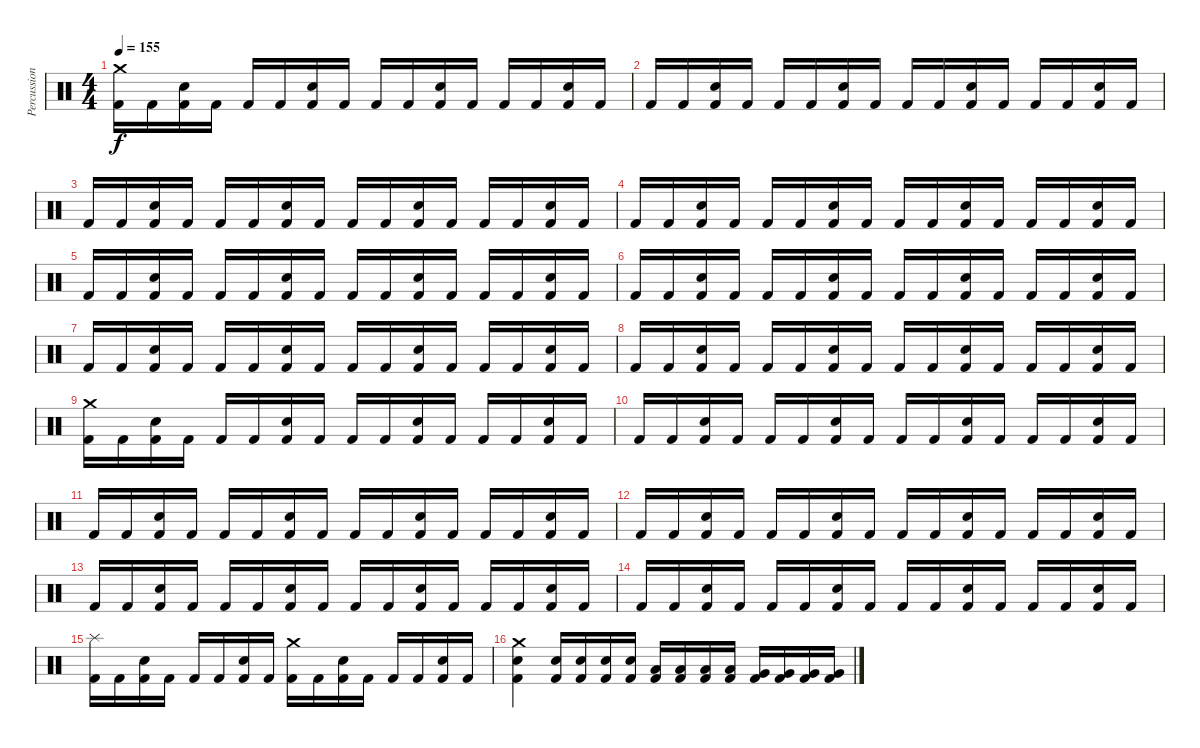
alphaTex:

\track ("Percussions" "Percussion") {instrument percussion}
\staff {score}
\articulation defaults
\ts (4 4)
\tempo 155
\clef neutral
\ks c
("Crash medium (hit)" "Kick (hit) 2").16{dy f} "Kick (hit) 2".16 ("Snare (hit) 2" "Kick (hit) 2").16 "Kick (hit) 2".16 "Kick (hit) 2".16 "Kick (hit) 2".16 ("Snare (hit) 2" "Kick (hit) 2").16 "Kick (hit) 2".16 "Kick (hit) 2".16 "Kick (hit) 2".16 ("Snare (hit) 2" "Kick (hit) 2").16 "Kick (hit) 2".16 "Kick (hit) 2".16 "Kick (hit) 2".16 ("Snare (hit) 2" "Kick (hit) 2").16 "Kick (hit) 2".16 |
"Kick (hit) 2".16 "Kick (hit) 2".16 ("Snare (hit) 2" "Kick (hit) 2").16 "Kick (hit) 2".16 "Kick (hit) 2".16 "Kick (hit) 2".16 ("Snare (hit) 2" "Kick (hit) 2").16 "Kick (hit) 2".16 "Kick (hit) 2".16 "Kick (hit) 2".16 ("Snare (hit) 2" "Kick (hit) 2").16 "Kick (hit) 2".16 "Kick (hit) 2".16 "Kick (hit) 2".16 ("Snare (hit) 2" "Kick (hit) 2").16 "Kick (hit) 2".16 |
"Kick (hit) 2".16 "Kick (hit) 2".16 ("Snare (hit) 2" "Kick (hit) 2").16 "Kick (hit) 2".16 "Kick (hit) 2".16 "Kick (hit) 2".16 ("Snare (hit) 2" "Kick (hit) 2").16 "Kick (hit) 2".16 "Kick (hit) 2".16 "Kick (hit) 2".16 ("Snare (hit) 2" "Kick (hit) 2").16 "Kick (hit) 2".16 "Kick (hit) 2".16 "Kick (hit) 2".16 ("Snare (hit) 2" "Kick (hit) 2").16 "Kick (hit) 2".16 |
"Kick (hit) 2".16 "Kick (hit) 2".16 ("Snare (hit) 2" "Kick (hit) 2").16 "Kick (hit) 2".16 "Kick (hit) 2".16 "Kick (hit) 2".16 ("Snare (hit) 2" "Kick (hit) 2").16 "Kick (hit) 2".16 "Kick (hit) 2".16 "Kick (hit) 2".16 ("Snare (hit) 2" "Kick (hit) 2").16 "Kick (hit) 2".16 "Kick (hit) 2".16 "Kick (hit) 2".16 ("Snare (hit) 2" "Kick (hit) 2").16 "Kick (hit) 2".16 |
"Kick (hit) 2".16 "Kick (hit) 2".16 ("Snare (hit) 2" "Kick (hit) 2").16 "Kick (hit) 2".16 "Kick (hit) 2".16 "Kick (hit) 2".16 ("Snare (hit) 2" "Kick (hit) 2").16 "Kick (hit) 2".16 "Kick (hit) 2".16 "Kick (hit) 2".16 ("Snare (hit) 2" "Kick (hit) 2").16 "Kick (hit) 2".16 "Kick (hit) 2".16 "Kick (hit) 2".16 ("Snare (hit) 2" "Kick (hit) 2").16 "Kick (hit) 2".16 |
"Kick (hit) 2".16 "Kick (hit) 2".16 ("Snare (hit) 2" "Kick (hit) 2").16 "Kick (hit) 2".16 "Kick (hit) 2".16 "Kick (hit) 2".16 ("Snare (hit) 2" "Kick (hit) 2").16 "Kick (hit) 2".16 "Kick (hit) 2".16 "Kick (hit) 2".16 ("Snare (hit) 2" "Kick (hit) 2").16 "Kick (hit) 2".16 "Kick (hit) 2".16 "Kick (hit) 2".16 ("Snare (hit) 2" "Kick (hit) 2").16 "Kick (hit) 2".16 |
"Kick (hit) 2".16 "Kick (hit) 2".16 ("Snare (hit) 2" "Kick (hit) 2").16 "Kick (hit) 2".16 "Kick (hit) 2".16 "Kick (hit) 2".16 ("Snare (hit) 2" "Kick (hit) 2").16 "Kick (hit) 2".16 "Kick (hit) 2".16 "Kick (hit) 2".16 ("Snare (hit) 2" "Kick (hit) 2").16 "Kick (hit) 2".16 "Kick (hit) 2".16 "Kick (hit) 2".16 ("Snare (hit) 2" "Kick (hit) 2").16 "Kick (hit) 2".16 |
"Kick (hit) 2".16 "Kick (hit) 2".16 ("Snare (hit) 2" "Kick (hit) 2").16 "Kick (hit) 2".16 "Kick (hit) 2".16 "Kick (hit) 2".16 ("Snare (hit) 2" "Kick (hit) 2").16 "Kick (hit) 2".16 "Kick (hit) 2".16 "Kick (hit) 2".16 ("Snare (hit) 2" "Kick (hit) 2").16 "Kick (hit) 2".16 "Kick (hit) 2".16 "Kick (hit) 2".16 ("Snare (hit) 2" "Kick (hit) 2").16 "Kick (hit) 2".16 |
("Crash medium (hit)" "Kick (hit) 2").16 "Kick (hit) 2".16 ("Snare (hit) 2" "Kick (hit) 2").16 "Kick (hit) 2".16 "Kick (hit) 2".16 "Kick (hit) 2".16 ("Snare (hit) 2" "Kick (hit) 2").16 "Kick (hit) 2".16 "Kick (hit) 2".16 "Kick (hit) 2".16 ("Snare (hit) 2" "Kick (hit) 2").16 "Kick (hit) 2".16 "Kick (hit) 2".16 "Kick (hit) 2".16 ("Snare (hit) 2" "Kick (hit) 2").16 "Kick (hit) 2".16 |
"Kick (hit) 2".16 "Kick (hit) 2".16 ("Snare (hit) 2" "Kick (hit) 2").16 "Kick (hit) 2".16 "Kick (hit) 2".16 "Kick (hit) 2".16 ("Snare (hit) 2" "Kick (hit) 2").16 "Kick (hit) 2".16 "Kick (hit) 2".16 "Kick (hit) 2".16 ("Snare (hit) 2" "Kick (hit) 2").16 "Kick (hit) 2".16 "Kick (hit) 2".16 "Kick (hit) 2".16 ("Snare (hit) 2" "Kick (hit) 2").16 "Kick (hit) 2".16 |
"Kick (hit) 2".16 "Kick (hit) 2".16 ("Snare (hit) 2" "Kick (hit) 2").16 "Kick (hit) 2".16 "Kick (hit) 2".16 "Kick (hit) 2".16 ("Snare (hit) 2" "Kick (hit) 2").16 "Kick (hit) 2".16 "Kick (hit) 2".16 "Kick (hit) 2".16 ("Snare (hit) 2" "Kick (hit) 2").16 "Kick (hit) 2".16 "Kick (hit) 2".16 "Kick (hit) 2".16 ("Snare (hit) 2" "Kick (hit) 2").16 "Kick (hit) 2".16 |
"Kick (hit) 2".16 "Kick (hit) 2".16 ("Snare (hit) 2" "Kick (hit) 2").16 "Kick (hit) 2".16 "Kick (hit) 2".16 "Kick (hit) 2".16 ("Snare (hit) 2" "Kick (hit) 2").16 "Kick (hit) 2".16 "Kick (hit) 2".16 "Kick (hit) 2".16 ("Snare (hit) 2" "Kick (hit) 2").16 "Kick (hit) 2".16 "Kick (hit) 2".16 "Kick (hit) 2".16 ("Snare (hit) 2" "Kick (hit) 2").16 "Kick (hit) 2".16 |
"Kick (hit) 2".16 "Kick (hit) 2".16 ("Snare (hit) 2" "Kick (hit) 2").16 "Kick (hit) 2".16 "Kick (hit) 2".16 "Kick (hit) 2".16 ("Snare (hit) 2" "Kick (hit) 2").16 "Kick (hit) 2".16 "Kick (hit) 2".16 "Kick (hit) 2".16 ("Snare (hit) 2" "Kick (hit) 2").16 "Kick (hit) 2".16 "Kick (hit) 2".16 "Kick (hit) 2".16 ("Snare (hit) 2" "Kick (hit) 2").16 "Kick (hit) 2".16 |
"Kick (hit) 2".16 "Kick (hit) 2".16 ("Snare (hit) 2" "Kick (hit) 2").16 "Kick (hit) 2".16 "Kick (hit) 2".16 "Kick (hit) 2".16 ("Snare (hit) 2" "Kick (hit) 2").16 "Kick (hit) 2".16 "Kick (hit) 2".16 "Kick (hit) 2".16 ("Snare (hit) 2" "Kick (hit) 2").16 "Kick (hit) 2".16 "Kick (hit) 2".16 "Kick (hit) 2".16 ("Snare (hit) 2" "Kick (hit) 2").16 "Kick (hit) 2".16 |
("Splash (hit)" "Kick (hit) 2").16 "Kick (hit) 2".16 ("Snare (hit) 2" "Kick (hit) 2").16 "Kick (hit) 2".16 "Kick (hit) 2".16 "Kick (hit) 2".16 ("Snare (hit) 2" "Kick (hit) 2").16 "Kick (hit) 2".16 ("Crash medium (hit)" "Kick (hit) 2").16 "Kick (hit) 2".16 ("Snare (hit) 2" "Kick (hit) 2").16 "Kick (hit) 2".16 "Kick (hit) 2".16 "Kick (hit) 2".16 ("Snare (hit) 2" "Kick (hit) 2").16 "Kick (hit) 2".16 |
("Crash medium (hit)" "Snare (hit) 2" "Kick (hit) 2").4 ("Snare (hit) 2" "Kick (hit) 2").16 ("Snare (hit) 2" "Kick (hit) 2").16 ("Snare (hit) 2" "Kick (hit) 2").16 ("Snare (hit) 2" "Kick (hit) 2").16 ("Low Tom (hit)" "Kick (hit) 2").16 ("Low Tom (hit)" "Kick (hit) 2").16 ("Low Tom (hit)" "Kick (hit) 2").16 ("Low Tom (hit)" "Kick (hit) 2").16 ("Very Low Tom (hit)" "Kick (hit) 2").16 ("Very Low Tom (hit)" "Kick (hit) 2").16 ("Very Low Tom (hit)" "Kick (hit) 2").16 ("Very Low Tom (hit)" "Kick (hit) 2").16
